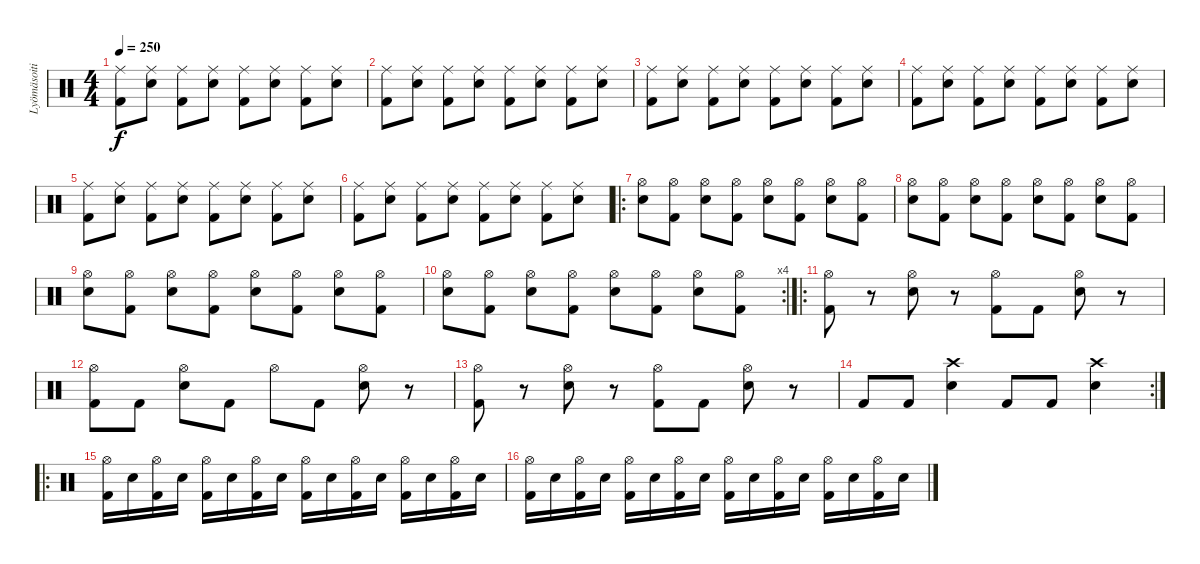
\track ("Lyömäsoitin" "Lyömäsoiti") {instrument percussion}
\staff {score}
\articulation defaults
\ts (4 4)
\tempo 250
\clef neutral
\ks c
("Ride (middle)" "Kick (hit) 2").8{dy f} ("Ride (middle)" "Electric Snare (hit)").8 ("Ride (middle)" "Kick (hit) 2").8 ("Ride (middle)" "Electric Snare (hit)").8 ("Ride (middle)" "Kick (hit) 2").8 ("Ride (middle)" "Electric Snare (hit)").8 ("Ride (middle)" "Kick (hit) 2").8 ("Ride (middle)" "Electric Snare (hit)").8 |
("Ride (middle)" "Kick (hit) 2").8 ("Ride (middle)" "Electric Snare (hit)").8 ("Ride (middle)" "Kick (hit) 2").8 ("Ride (middle)" "Electric Snare (hit)").8 ("Ride (middle)" "Kick (hit) 2").8 ("Ride (middle)" "Electric Snare (hit)").8 ("Ride (middle)" "Kick (hit) 2").8 ("Ride (middle)" "Electric Snare (hit)").8 |
("Ride (middle)" "Kick (hit) 2").8 ("Ride (middle)" "Electric Snare (hit)").8 ("Ride (middle)" "Kick (hit) 2").8 ("Ride (middle)" "Electric Snare (hit)").8 ("Ride (middle)" "Kick (hit) 2").8 ("Ride (middle)" "Electric Snare (hit)").8 ("Ride (middle)" "Kick (hit) 2").8 ("Ride (middle)" "Electric Snare (hit)").8 |
("Ride (middle)" "Kick (hit) 2").8 ("Ride (middle)" "Electric Snare (hit)").8 ("Ride (middle)" "Kick (hit) 2").8 ("Ride (middle)" "Electric Snare (hit)").8 ("Ride (middle)" "Kick (hit) 2").8 ("Ride (middle)" "Electric Snare (hit)").8 ("Ride (middle)" "Kick (hit) 2").8 ("Ride (middle)" "Electric Snare (hit)").8 |
("Ride (middle)" "Kick (hit) 2").8 ("Ride (middle)" "Electric Snare (hit)").8 ("Ride (middle)" "Kick (hit) 2").8 ("Ride (middle)" "Electric Snare (hit)").8 ("Ride (middle)" "Kick (hit) 2").8 ("Ride (middle)" "Electric Snare (hit)").8 ("Ride (middle)" "Kick (hit) 2").8 ("Ride (middle)" "Electric Snare (hit)").8 |
("Ride (middle)" "Kick (hit) 2").8 ("Ride (middle)" "Electric Snare (hit)").8 ("Ride (middle)" "Kick (hit) 2").8 ("Ride (middle)" "Electric Snare (hit)").8 ("Ride (middle)" "Kick (hit) 2").8 ("Ride (middle)" "Electric Snare (hit)").8 ("Ride (middle)" "Kick (hit) 2").8 ("Ride (middle)" "Electric Snare (hit)").8 |
\ro
("Hi-Hat (open)" "Electric Snare (hit)").8 ("Hi-Hat (open)" "Kick (hit) 2").8 ("Hi-Hat (open)" "Electric Snare (hit)").8 ("Hi-Hat (open)" "Kick (hit) 2").8 ("Hi-Hat (open)" "Electric Snare (hit)").8 ("Hi-Hat (open)" "Kick (hit) 2").8 ("Hi-Hat (open)" "Electric Snare (hit)").8 ("Hi-Hat (open)" "Kick (hit) 2").8 |
("Hi-Hat (open)" "Electric Snare (hit)").8 ("Hi-Hat (open)" "Kick (hit) 2").8 ("Hi-Hat (open)" "Electric Snare (hit)").8 ("Hi-Hat (open)" "Kick (hit) 2").8 ("Hi-Hat (open)" "Electric Snare (hit)").8 ("Hi-Hat (open)" "Kick (hit) 2").8 ("Hi-Hat (open)" "Electric Snare (hit)").8 ("Hi-Hat (open)" "Kick (hit) 2").8 |
("Hi-Hat (open)" "Electric Snare (hit)").8 ("Hi-Hat (open)" "Kick (hit) 2").8 ("Hi-Hat (open)" "Electric Snare (hit)").8 ("Hi-Hat (open)" "Kick (hit) 2").8 ("Hi-Hat (open)" "Electric Snare (hit)").8 ("Hi-Hat (open)" "Kick (hit) 2").8 ("Hi-Hat (open)" "Electric Snare (hit)").8 ("Hi-Hat (open)" "Kick (hit) 2").8 |
\rc 4
("Hi-Hat (open)" "Electric Snare (hit)").8 ("Hi-Hat (open)" "Kick (hit) 2").8 ("Hi-Hat (open)" "Electric Snare (hit)").8 ("Hi-Hat (open)" "Kick (hit) 2").8 ("Hi-Hat (open)" "Electric Snare (hit)").8 ("Hi-Hat (open)" "Kick (hit) 2").8 ("Hi-Hat (open)" "Electric Snare (hit)").8 ("Hi-Hat (open)" "Kick (hit) 2").8 |
\ro
("Hi-Hat (open)" "Kick (hit) 2").8 r.8 ("Hi-Hat (open)" "Electric Snare (hit)").8 r.8 ("Hi-Hat (open)" "Kick (hit) 2").8 "Kick (hit) 2".8 ("Hi-Hat (open)" "Electric Snare (hit)").8 r.8 |
("Hi-Hat (open)" "Kick (hit) 2").8 "Kick (hit) 2".8 ("Hi-Hat (open)" "Electric Snare (hit)").8 "Kick (hit) 2".8 "Hi-Hat (open)".8 "Kick (hit) 2".8 ("Hi-Hat (open)" "Electric Snare (hit)").8 r.8 |
("Hi-Hat (open)" "Kick (hit) 2").8 r.8 ("Hi-Hat (open)" "Electric Snare (hit)").8 r.8 ("Hi-Hat (open)" "Kick (hit) 2").8 "Kick (hit) 2".8 ("Hi-Hat (open)" "Electric Snare (hit)").8 r.8 |
\rc 2 "Kick (hit) 2".8 "Kick (hit) 2".8
("Electric Snare (hit)" "Crash high (hit)").4 "Kick (hit) 2".8 "Kick (hit) 2".8 ("Electric Snare (hit)" "Crash high (hit)").4 |
\ro
("Hi-Hat (open)" "Kick (hit) 2").16 "Electric Snare (hit)".16 ("Hi-Hat (open)" "Kick (hit) 2").16 "Electric Snare (hit)".16 ("Hi-Hat (open)" "Kick (hit) 2").16 "Electric Snare (hit)".16 ("Hi-Hat (open)" "Kick (hit) 2").16 "Electric Snare (hit)".16 ("Hi-Hat (open)" "Kick (hit) 2").16 "Electric Snare (hit)".16 ("Hi-Hat (open)" "Kick (hit) 2").16 "Electric Snare (hit)".16 ("Hi-Hat (open)" "Kick (hit) 2").16 "Electric Snare (hit)".16 ("Hi-Hat (open)" "Kick (hit) 2").16 "Electric Snare (hit)".16 |
("Hi-Hat (open)" "Kick (hit) 2").16 "Electric Snare (hit)".16 ("Hi-Hat (open)" "Kick (hit) 2").16 "Electric Snare (hit)".16 ("Hi-Hat (open)" "Kick (hit) 2").16 "Electric Snare (hit)".16 ("Hi-Hat (open)" "Kick (hit) 2").16 "Electric Snare (hit)".16 ("Hi-Hat (open)" "Kick (hit) 2").16 "Electric Snare (hit)".16 ("Hi-Hat (open)" "Kick (hit) 2").16 "Electric Snare (hit)".16 ("Hi-Hat (open)" "Kick (hit) 2").16 "Electric Snare (hit)".16 ("Hi-Hat (open)" "Kick (hit) 2").16 "Electric Snare (hit)".16
